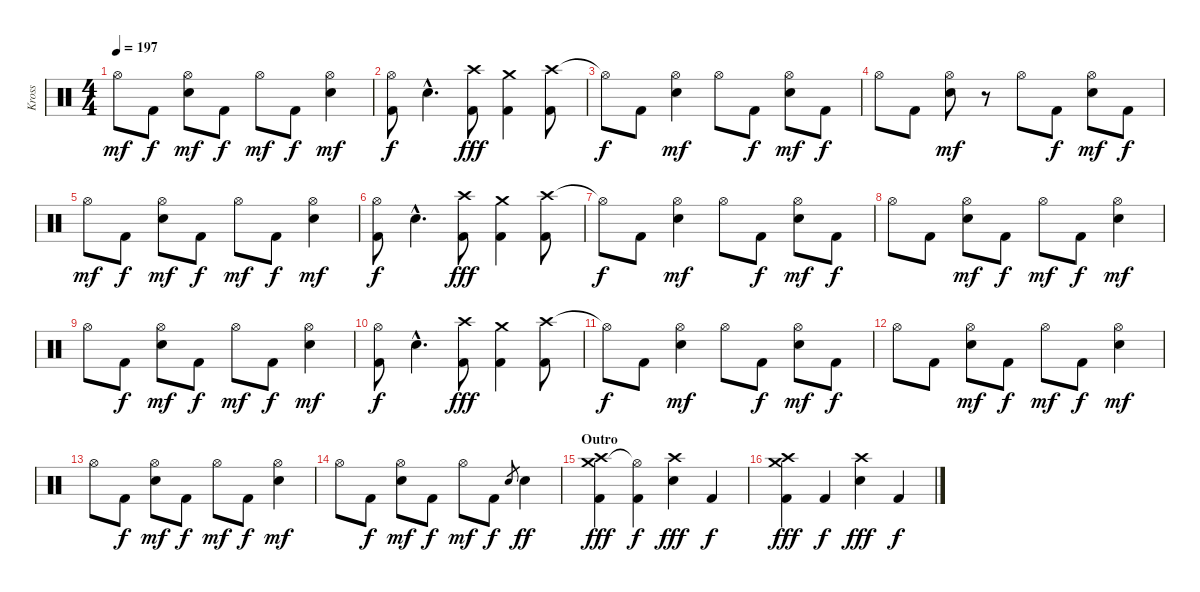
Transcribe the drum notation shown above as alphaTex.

\track ("Kross" "Kross") {instrument percussion}
\staff {score}
\articulation defaults
\ts (4 4)
\tempo 197
\clef neutral
\ks c "Hi-Hat (open)".8{dy mf} "Kick (hit) 2".8{dy f}
("Hi-Hat (open)" "Electric Snare (hit)").8{dy mf} "Kick (hit) 2".8{dy f} "Hi-Hat (open)".8{dy mf} "Kick (hit) 2".8{dy f} ("Hi-Hat (open)" "Electric Snare (hit)").4{dy mf} |
("Hi-Hat (open)" "Kick (hit) 2").8{dy f} "Electric Snare (hit)"{hac}.4{d} ("Crash high (hit)" "Kick (hit) 2").8{dy fff} ("Crash medium (hit)" "Kick (hit) 2").4 ("Crash high (hit)" "Kick (hit) 2").8 |
"Hi-Hat (open)"{t}.8{dy f} "Kick (hit) 2".8 ("Hi-Hat (open)" "Electric Snare (hit)").4{dy mf} "Hi-Hat (open)".8 "Kick (hit) 2".8{dy f} ("Hi-Hat (open)" "Electric Snare (hit)").8{dy mf} "Kick (hit) 2".8{dy f} |
"Hi-Hat (open)".8 "Kick (hit) 2".8 ("Hi-Hat (open)" "Electric Snare (hit)").8{dy mf} r.8 "Hi-Hat (open)".8 "Kick (hit) 2".8{dy f} ("Hi-Hat (open)" "Electric Snare (hit)").8{dy mf} "Kick (hit) 2".8{dy f} |
"Hi-Hat (open)".8{dy mf} "Kick (hit) 2".8{dy f} ("Hi-Hat (open)" "Electric Snare (hit)").8{dy mf} "Kick (hit) 2".8{dy f} "Hi-Hat (open)".8{dy mf} "Kick (hit) 2".8{dy f} ("Hi-Hat (open)" "Electric Snare (hit)").4{dy mf} |
("Hi-Hat (open)" "Kick (hit) 2").8{dy f} "Electric Snare (hit)"{hac}.4{d} ("Crash high (hit)" "Kick (hit) 2").8{dy fff} ("Crash medium (hit)" "Kick (hit) 2").4 ("Crash high (hit)" "Kick (hit) 2").8 |
"Hi-Hat (open)"{t}.8{dy f} "Kick (hit) 2".8 ("Hi-Hat (open)" "Electric Snare (hit)").4{dy mf} "Hi-Hat (open)".8 "Kick (hit) 2".8{dy f} ("Hi-Hat (open)" "Electric Snare (hit)").8{dy mf} "Kick (hit) 2".8{dy f} |
"Hi-Hat (open)".8 "Kick (hit) 2".8 ("Hi-Hat (open)" "Electric Snare (hit)").8{dy mf} "Kick (hit) 2".8{dy f} "Hi-Hat (open)".8{dy mf} "Kick (hit) 2".8{dy f} ("Hi-Hat (open)" "Electric Snare (hit)").4{dy mf} |
"Hi-Hat (open)".8 "Kick (hit) 2".8{dy f} ("Hi-Hat (open)" "Electric Snare (hit)").8{dy mf} "Kick (hit) 2".8{dy f} "Hi-Hat (open)".8{dy mf} "Kick (hit) 2".8{dy f} ("Hi-Hat (open)" "Electric Snare (hit)").4{dy mf} |
("Hi-Hat (open)" "Kick (hit) 2").8{dy f} "Electric Snare (hit)"{hac}.4{d} ("Crash high (hit)" "Kick (hit) 2").8{dy fff} ("Crash medium (hit)" "Kick (hit) 2").4 ("Crash high (hit)" "Kick (hit) 2").8 |
"Hi-Hat (open)"{t}.8{dy f} "Kick (hit) 2".8 ("Hi-Hat (open)" "Electric Snare (hit)").4{dy mf} "Hi-Hat (open)".8 "Kick (hit) 2".8{dy f} ("Hi-Hat (open)" "Electric Snare (hit)").8{dy mf} "Kick (hit) 2".8{dy f} |
"Hi-Hat (open)".8 "Kick (hit) 2".8 ("Hi-Hat (open)" "Electric Snare (hit)").8{dy mf} "Kick (hit) 2".8{dy f} "Hi-Hat (open)".8{dy mf} "Kick (hit) 2".8{dy f} ("Hi-Hat (open)" "Electric Snare (hit)").4{dy mf} |
"Hi-Hat (open)".8 "Kick (hit) 2".8{dy f} ("Hi-Hat (open)" "Electric Snare (hit)").8{dy mf} "Kick (hit) 2".8{dy f} "Hi-Hat (open)".8{dy mf} "Kick (hit) 2".8{dy f} ("Hi-Hat (open)" "Electric Snare (hit)").4{dy mf} |
"Hi-Hat (open)".8 "Kick (hit) 2".8{dy f} ("Hi-Hat (open)" "Electric Snare (hit)").8{dy mf} "Kick (hit) 2".8{dy f} "Hi-Hat (open)".8{dy mf} "Kick (hit) 2".8{dy f} "Electric Snare (hit)".8{gr} "Electric Snare (hit)".4{dy ff} |
\section ("" "Outro")
("Crash medium (hit)" "Crash high (hit)" "Kick (hit) 2").4{dy fff} ("Hi-Hat (open)"{t} "Kick (hit) 2").4{dy f} ("Crash high (hit)" "Electric Snare (hit)").4{dy fff} "Kick (hit) 2".4{dy f} |
("Crash high (hit)" "Crash medium (hit)" "Kick (hit) 2").4{dy fff} "Kick (hit) 2".4{dy f} ("Crash high (hit)" "Electric Snare (hit)").4{dy fff} "Kick (hit) 2".4{dy f}
